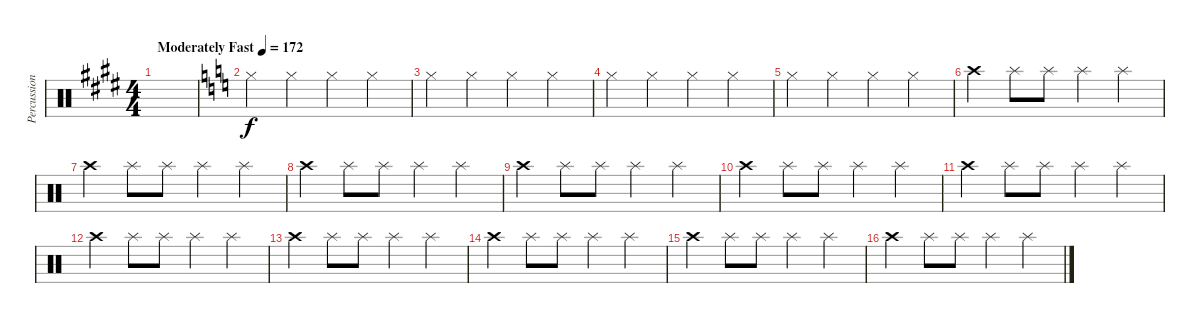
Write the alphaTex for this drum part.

\track ("Percussion" "Percussion") {instrument percussion}
\staff {score}
\articulation defaults
\ts (4 4)
\tempo (172 "Moderately Fast")
\clef neutral
\ks e
|
\ks c "Hi-Hat (closed)".4 "Hi-Hat (closed)".4 "Hi-Hat (closed)".4 "Hi-Hat (closed)".4
|
"Hi-Hat (closed)".4 "Hi-Hat (closed)".4 "Hi-Hat (closed)".4 "Hi-Hat (closed)".4 |
"Hi-Hat (closed)".4 "Hi-Hat (closed)".4 "Hi-Hat (closed)".4 "Hi-Hat (closed)".4 |
"Hi-Hat (closed)".4 "Hi-Hat (closed)".4 "Hi-Hat (closed)".4 "Hi-Hat (closed)".4 |
"Crash high (hit)".4 "Splash (hit)".8 "Splash (hit)".8 "Splash (hit)".4 "Splash (hit)".4 |
"Crash high (hit)".4 "Splash (hit)".8 "Splash (hit)".8 "Splash (hit)".4 "Splash (hit)".4 |
"Crash high (hit)".4 "Splash (hit)".8 "Splash (hit)".8 "Splash (hit)".4 "Splash (hit)".4 |
"Crash high (hit)".4 "Splash (hit)".8 "Splash (hit)".8 "Splash (hit)".4 "Splash (hit)".4 |
"Crash high (hit)".4 "Splash (hit)".8 "Splash (hit)".8 "Splash (hit)".4 "Splash (hit)".4 |
"Crash high (hit)".4 "Splash (hit)".8 "Splash (hit)".8 "Splash (hit)".4 "Splash (hit)".4 |
"Crash high (hit)".4 "Splash (hit)".8 "Splash (hit)".8 "Splash (hit)".4 "Splash (hit)".4 |
"Crash high (hit)".4 "Splash (hit)".8 "Splash (hit)".8 "Splash (hit)".4 "Splash (hit)".4 |
"Crash high (hit)".4 "Splash (hit)".8 "Splash (hit)".8 "Splash (hit)".4 "Splash (hit)".4 |
"Crash high (hit)".4 "Splash (hit)".8 "Splash (hit)".8 "Splash (hit)".4 "Splash (hit)".4 |
"Crash high (hit)".4 "Splash (hit)".8 "Splash (hit)".8 "Splash (hit)".4 "Splash (hit)".4
